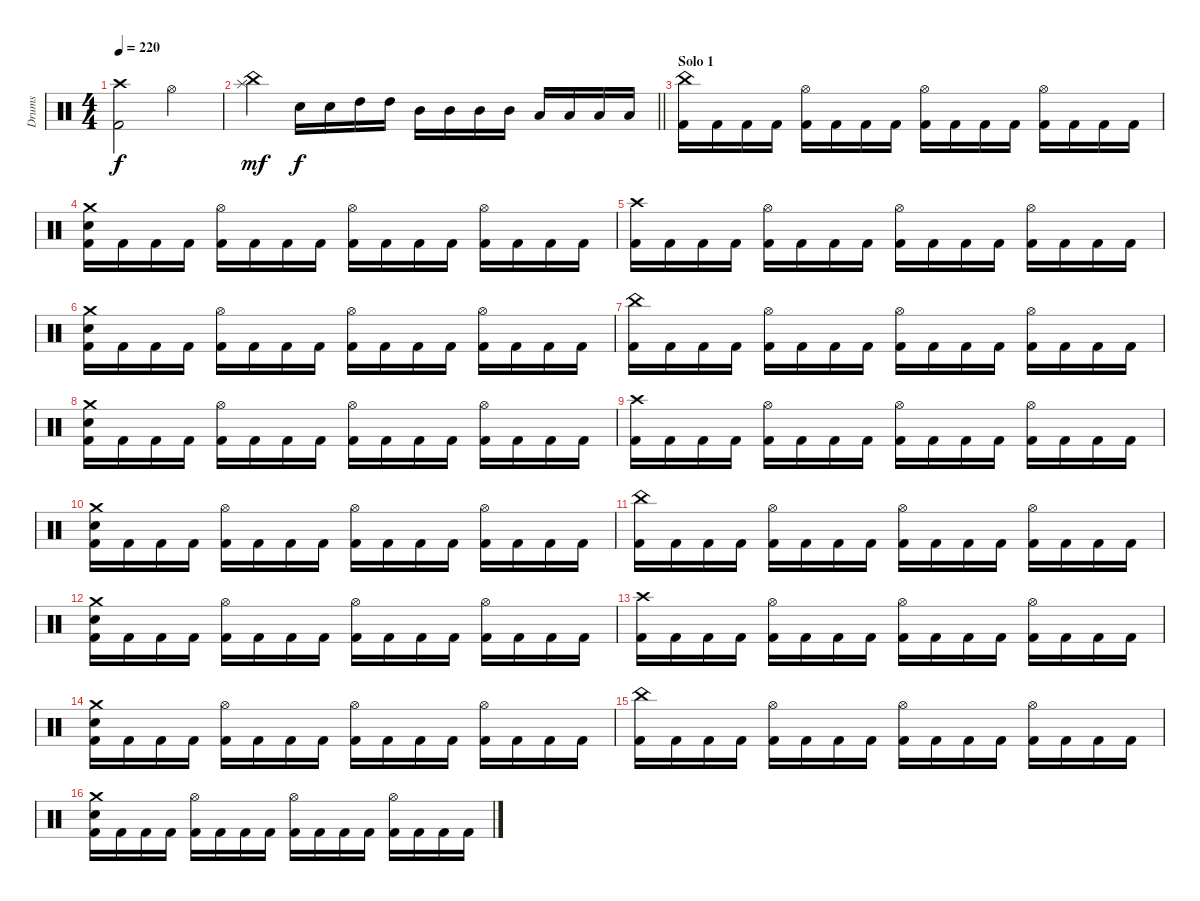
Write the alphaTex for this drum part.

\track ("Drums" "Drums") {instrument percussion}
\staff {score}
\articulation defaults
\ts (4 4)
\tempo 220
\clef neutral
\ks c
("Crash high (hit)" "Kick (hit) 2").2{dy f} "Hi-Hat (open)".2 |
\barLineRight lightlight
("China (hit)" "Splash (hit)").4{dy mf} "Electric Snare (hit)".16{dy f} "Electric Snare (hit)".16 "High Tom (hit)".16 "High Tom (hit)".16 "Mid Tom (hit)".16 "Mid Tom (hit)".16 "Mid Tom (hit)".16 "Mid Tom (hit)".16 "Low Tom (hit)".16 "Low Tom (hit)".16 "Low Tom (hit)".16 "Low Tom (hit)".16 |
\section ("" "Solo 1")
("China (hit)" "Kick (hit) 2").16 "Kick (hit) 2".16 "Kick (hit) 2".16 "Kick (hit) 2".16 ("Hi-Hat (open)" "Kick (hit) 2").16 "Kick (hit) 2".16 "Kick (hit) 2".16 "Kick (hit) 2".16 ("Hi-Hat (open)" "Kick (hit) 2").16 "Kick (hit) 2".16 "Kick (hit) 2".16 "Kick (hit) 2".16 ("Hi-Hat (open)" "Kick (hit) 2").16 "Kick (hit) 2".16 "Kick (hit) 2".16 "Kick (hit) 2".16 |
("Crash medium (hit)" "Electric Snare (hit)" "Kick (hit) 2").16 "Kick (hit) 2".16 "Kick (hit) 2".16 "Kick (hit) 2".16 ("Hi-Hat (open)" "Kick (hit) 2").16 "Kick (hit) 2".16 "Kick (hit) 2".16 "Kick (hit) 2".16 ("Hi-Hat (open)" "Kick (hit) 2").16 "Kick (hit) 2".16 "Kick (hit) 2".16 "Kick (hit) 2".16 ("Hi-Hat (open)" "Kick (hit) 2").16 "Kick (hit) 2".16 "Kick (hit) 2".16 "Kick (hit) 2".16 |
("Crash high (hit)" "Kick (hit) 2").16 "Kick (hit) 2".16 "Kick (hit) 2".16 "Kick (hit) 2".16 ("Hi-Hat (open)" "Kick (hit) 2").16 "Kick (hit) 2".16 "Kick (hit) 2".16 "Kick (hit) 2".16 ("Hi-Hat (open)" "Kick (hit) 2").16 "Kick (hit) 2".16 "Kick (hit) 2".16 "Kick (hit) 2".16 ("Hi-Hat (open)" "Kick (hit) 2").16 "Kick (hit) 2".16 "Kick (hit) 2".16 "Kick (hit) 2".16 |
("Crash medium (hit)" "Electric Snare (hit)" "Kick (hit) 2").16 "Kick (hit) 2".16 "Kick (hit) 2".16 "Kick (hit) 2".16 ("Hi-Hat (open)" "Kick (hit) 2").16 "Kick (hit) 2".16 "Kick (hit) 2".16 "Kick (hit) 2".16 ("Hi-Hat (open)" "Kick (hit) 2").16 "Kick (hit) 2".16 "Kick (hit) 2".16 "Kick (hit) 2".16 ("Hi-Hat (open)" "Kick (hit) 2").16 "Kick (hit) 2".16 "Kick (hit) 2".16 "Kick (hit) 2".16 |
("China (hit)" "Kick (hit) 2").16 "Kick (hit) 2".16 "Kick (hit) 2".16 "Kick (hit) 2".16 ("Hi-Hat (open)" "Kick (hit) 2").16 "Kick (hit) 2".16 "Kick (hit) 2".16 "Kick (hit) 2".16 ("Hi-Hat (open)" "Kick (hit) 2").16 "Kick (hit) 2".16 "Kick (hit) 2".16 "Kick (hit) 2".16 ("Hi-Hat (open)" "Kick (hit) 2").16 "Kick (hit) 2".16 "Kick (hit) 2".16 "Kick (hit) 2".16 |
("Crash medium (hit)" "Electric Snare (hit)" "Kick (hit) 2").16 "Kick (hit) 2".16 "Kick (hit) 2".16 "Kick (hit) 2".16 ("Hi-Hat (open)" "Kick (hit) 2").16 "Kick (hit) 2".16 "Kick (hit) 2".16 "Kick (hit) 2".16 ("Hi-Hat (open)" "Kick (hit) 2").16 "Kick (hit) 2".16 "Kick (hit) 2".16 "Kick (hit) 2".16 ("Hi-Hat (open)" "Kick (hit) 2").16 "Kick (hit) 2".16 "Kick (hit) 2".16 "Kick (hit) 2".16 |
("Crash high (hit)" "Kick (hit) 2").16 "Kick (hit) 2".16 "Kick (hit) 2".16 "Kick (hit) 2".16 ("Hi-Hat (open)" "Kick (hit) 2").16 "Kick (hit) 2".16 "Kick (hit) 2".16 "Kick (hit) 2".16 ("Hi-Hat (open)" "Kick (hit) 2").16 "Kick (hit) 2".16 "Kick (hit) 2".16 "Kick (hit) 2".16 ("Hi-Hat (open)" "Kick (hit) 2").16 "Kick (hit) 2".16 "Kick (hit) 2".16 "Kick (hit) 2".16 |
("Crash medium (hit)" "Electric Snare (hit)" "Kick (hit) 2").16 "Kick (hit) 2".16 "Kick (hit) 2".16 "Kick (hit) 2".16 ("Hi-Hat (open)" "Kick (hit) 2").16 "Kick (hit) 2".16 "Kick (hit) 2".16 "Kick (hit) 2".16 ("Hi-Hat (open)" "Kick (hit) 2").16 "Kick (hit) 2".16 "Kick (hit) 2".16 "Kick (hit) 2".16 ("Hi-Hat (open)" "Kick (hit) 2").16 "Kick (hit) 2".16 "Kick (hit) 2".16 "Kick (hit) 2".16 |
("China (hit)" "Kick (hit) 2").16 "Kick (hit) 2".16 "Kick (hit) 2".16 "Kick (hit) 2".16 ("Hi-Hat (open)" "Kick (hit) 2").16 "Kick (hit) 2".16 "Kick (hit) 2".16 "Kick (hit) 2".16 ("Hi-Hat (open)" "Kick (hit) 2").16 "Kick (hit) 2".16 "Kick (hit) 2".16 "Kick (hit) 2".16 ("Hi-Hat (open)" "Kick (hit) 2").16 "Kick (hit) 2".16 "Kick (hit) 2".16 "Kick (hit) 2".16 |
("Crash medium (hit)" "Electric Snare (hit)" "Kick (hit) 2").16 "Kick (hit) 2".16 "Kick (hit) 2".16 "Kick (hit) 2".16 ("Hi-Hat (open)" "Kick (hit) 2").16 "Kick (hit) 2".16 "Kick (hit) 2".16 "Kick (hit) 2".16 ("Hi-Hat (open)" "Kick (hit) 2").16 "Kick (hit) 2".16 "Kick (hit) 2".16 "Kick (hit) 2".16 ("Hi-Hat (open)" "Kick (hit) 2").16 "Kick (hit) 2".16 "Kick (hit) 2".16 "Kick (hit) 2".16 |
("Crash high (hit)" "Kick (hit) 2").16 "Kick (hit) 2".16 "Kick (hit) 2".16 "Kick (hit) 2".16 ("Hi-Hat (open)" "Kick (hit) 2").16 "Kick (hit) 2".16 "Kick (hit) 2".16 "Kick (hit) 2".16 ("Hi-Hat (open)" "Kick (hit) 2").16 "Kick (hit) 2".16 "Kick (hit) 2".16 "Kick (hit) 2".16 ("Hi-Hat (open)" "Kick (hit) 2").16 "Kick (hit) 2".16 "Kick (hit) 2".16 "Kick (hit) 2".16 |
("Crash medium (hit)" "Electric Snare (hit)" "Kick (hit) 2").16 "Kick (hit) 2".16 "Kick (hit) 2".16 "Kick (hit) 2".16 ("Hi-Hat (open)" "Kick (hit) 2").16 "Kick (hit) 2".16 "Kick (hit) 2".16 "Kick (hit) 2".16 ("Hi-Hat (open)" "Kick (hit) 2").16 "Kick (hit) 2".16 "Kick (hit) 2".16 "Kick (hit) 2".16 ("Hi-Hat (open)" "Kick (hit) 2").16 "Kick (hit) 2".16 "Kick (hit) 2".16 "Kick (hit) 2".16 |
("China (hit)" "Kick (hit) 2").16 "Kick (hit) 2".16 "Kick (hit) 2".16 "Kick (hit) 2".16 ("Hi-Hat (open)" "Kick (hit) 2").16 "Kick (hit) 2".16 "Kick (hit) 2".16 "Kick (hit) 2".16 ("Hi-Hat (open)" "Kick (hit) 2").16 "Kick (hit) 2".16 "Kick (hit) 2".16 "Kick (hit) 2".16 ("Hi-Hat (open)" "Kick (hit) 2").16 "Kick (hit) 2".16 "Kick (hit) 2".16 "Kick (hit) 2".16 |
("Crash medium (hit)" "Electric Snare (hit)" "Kick (hit) 2").16 "Kick (hit) 2".16 "Kick (hit) 2".16 "Kick (hit) 2".16 ("Hi-Hat (open)" "Kick (hit) 2").16 "Kick (hit) 2".16 "Kick (hit) 2".16 "Kick (hit) 2".16 ("Hi-Hat (open)" "Kick (hit) 2").16 "Kick (hit) 2".16 "Kick (hit) 2".16 "Kick (hit) 2".16 ("Hi-Hat (open)" "Kick (hit) 2").16 "Kick (hit) 2".16 "Kick (hit) 2".16 "Kick (hit) 2".16
